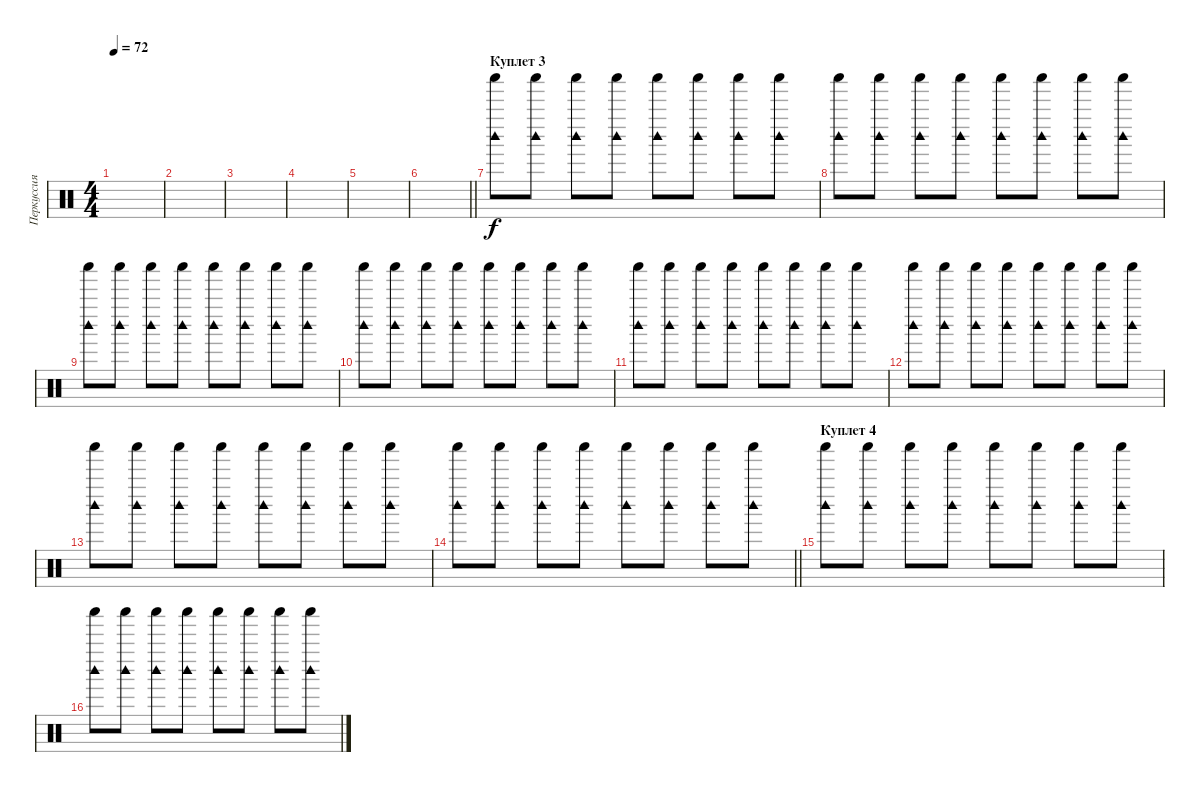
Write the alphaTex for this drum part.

\track ("Перкуссия" "Перкуссия") {instrument percussion}
\staff {score}
\articulation defaults
\ts (4 4)
\tempo 72
\clef neutral
\ks c
|
|
|
|
|
\barLineRight lightlight
|
\section ("" "Куплет 3")
("Shaker (hit)" "Woodblock high (hit)").8{volume 10} ("Shaker (hit)" "Woodblock high (hit)").8 ("Shaker (hit)" "Woodblock high (hit)").8 ("Shaker (hit)" "Woodblock high (hit)").8 ("Shaker (hit)" "Woodblock high (hit)").8 ("Shaker (hit)" "Woodblock high (hit)").8 ("Shaker (hit)" "Woodblock high (hit)").8 ("Shaker (hit)" "Woodblock high (hit)").8 |
("Shaker (hit)" "Woodblock high (hit)").8 ("Shaker (hit)" "Woodblock high (hit)").8 ("Shaker (hit)" "Woodblock high (hit)").8 ("Shaker (hit)" "Woodblock high (hit)").8 ("Shaker (hit)" "Woodblock high (hit)").8 ("Shaker (hit)" "Woodblock high (hit)").8 ("Shaker (hit)" "Woodblock high (hit)").8 ("Shaker (hit)" "Woodblock high (hit)").8 |
("Shaker (hit)" "Woodblock high (hit)").8 ("Shaker (hit)" "Woodblock high (hit)").8 ("Shaker (hit)" "Woodblock high (hit)").8 ("Shaker (hit)" "Woodblock high (hit)").8 ("Shaker (hit)" "Woodblock high (hit)").8 ("Shaker (hit)" "Woodblock high (hit)").8 ("Shaker (hit)" "Woodblock high (hit)").8 ("Shaker (hit)" "Woodblock high (hit)").8 |
("Shaker (hit)" "Woodblock high (hit)").8 ("Shaker (hit)" "Woodblock high (hit)").8 ("Shaker (hit)" "Woodblock high (hit)").8 ("Shaker (hit)" "Woodblock high (hit)").8 ("Shaker (hit)" "Woodblock high (hit)").8 ("Shaker (hit)" "Woodblock high (hit)").8 ("Shaker (hit)" "Woodblock high (hit)").8 ("Shaker (hit)" "Woodblock high (hit)").8 |
("Shaker (hit)" "Woodblock high (hit)").8 ("Shaker (hit)" "Woodblock high (hit)").8 ("Shaker (hit)" "Woodblock high (hit)").8 ("Shaker (hit)" "Woodblock high (hit)").8 ("Shaker (hit)" "Woodblock high (hit)").8 ("Shaker (hit)" "Woodblock high (hit)").8 ("Shaker (hit)" "Woodblock high (hit)").8 ("Shaker (hit)" "Woodblock high (hit)").8 |
("Shaker (hit)" "Woodblock high (hit)").8 ("Shaker (hit)" "Woodblock high (hit)").8 ("Shaker (hit)" "Woodblock high (hit)").8 ("Shaker (hit)" "Woodblock high (hit)").8 ("Shaker (hit)" "Woodblock high (hit)").8 ("Shaker (hit)" "Woodblock high (hit)").8 ("Shaker (hit)" "Woodblock high (hit)").8 ("Shaker (hit)" "Woodblock high (hit)").8 |
("Shaker (hit)" "Woodblock high (hit)").8 ("Shaker (hit)" "Woodblock high (hit)").8 ("Shaker (hit)" "Woodblock high (hit)").8 ("Shaker (hit)" "Woodblock high (hit)").8 ("Shaker (hit)" "Woodblock high (hit)").8 ("Shaker (hit)" "Woodblock high (hit)").8 ("Shaker (hit)" "Woodblock high (hit)").8 ("Shaker (hit)" "Woodblock high (hit)").8 |
\barLineRight lightlight
("Shaker (hit)" "Woodblock high (hit)").8 ("Shaker (hit)" "Woodblock high (hit)").8 ("Shaker (hit)" "Woodblock high (hit)").8 ("Shaker (hit)" "Woodblock high (hit)").8 ("Shaker (hit)" "Woodblock high (hit)").8 ("Shaker (hit)" "Woodblock high (hit)").8 ("Shaker (hit)" "Woodblock high (hit)").8 ("Shaker (hit)" "Woodblock high (hit)").8 |
\section ("" "Куплет 4")
("Shaker (hit)" "Woodblock high (hit)").8{volume 10} ("Shaker (hit)" "Woodblock high (hit)").8 ("Shaker (hit)" "Woodblock high (hit)").8 ("Shaker (hit)" "Woodblock high (hit)").8 ("Shaker (hit)" "Woodblock high (hit)").8 ("Shaker (hit)" "Woodblock high (hit)").8 ("Shaker (hit)" "Woodblock high (hit)").8 ("Shaker (hit)" "Woodblock high (hit)").8 |
("Shaker (hit)" "Woodblock high (hit)").8 ("Shaker (hit)" "Woodblock high (hit)").8 ("Shaker (hit)" "Woodblock high (hit)").8 ("Shaker (hit)" "Woodblock high (hit)").8 ("Shaker (hit)" "Woodblock high (hit)").8 ("Shaker (hit)" "Woodblock high (hit)").8 ("Shaker (hit)" "Woodblock high (hit)").8 ("Shaker (hit)" "Woodblock high (hit)").8
